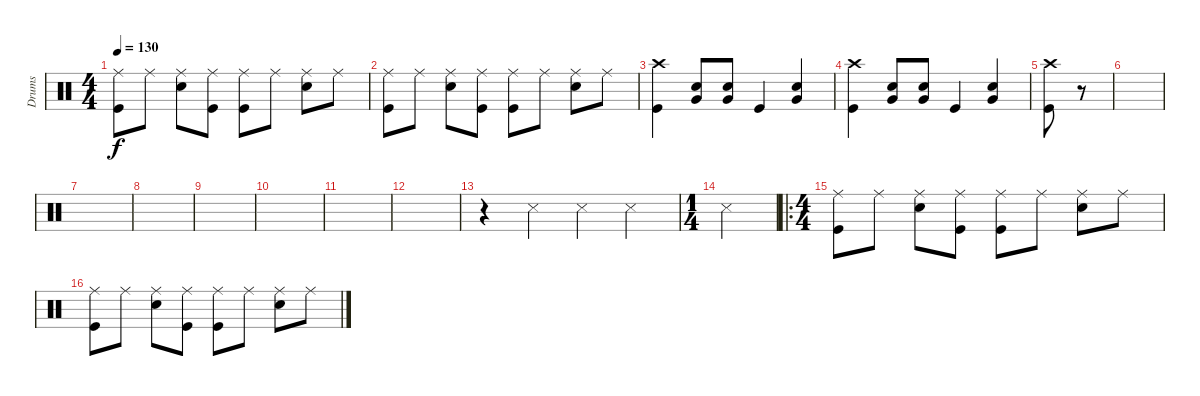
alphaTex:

\track ("Drums" "Drums") {instrument percussion}
\staff {score}
\articulation defaults
\ts (4 4)
\tempo 130
\clef neutral
\ks c
("Ride (middle)" "Kick (hit)").8{dy f} "Ride (middle)".8 ("Ride (middle)" "Snare (hit) 2").8 ("Ride (middle)" "Kick (hit)").8 ("Ride (middle)" "Kick (hit)").8 "Ride (middle)".8 ("Ride (middle)" "Snare (hit) 2").8 "Ride (middle)".8 |
("Ride (middle)" "Kick (hit)").8 "Ride (middle)".8 ("Ride (middle)" "Snare (hit) 2").8 ("Ride (middle)" "Kick (hit)").8 ("Ride (middle)" "Kick (hit)").8 "Ride (middle)".8 ("Ride (middle)" "Snare (hit) 2").8 "Ride (middle)".8 |
("Crash high (hit)" "Kick (hit)").4 ("Snare (hit) 2" "Very Low Tom (hit)").8 ("Snare (hit) 2" "Very Low Tom (hit)").8 "Kick (hit)".4 ("Snare (hit) 2" "Very Low Tom (hit)").4 |
("Crash high (hit)" "Kick (hit)").4 ("Snare (hit) 2" "Very Low Tom (hit)").8 ("Snare (hit) 2" "Very Low Tom (hit)").8 "Kick (hit)".4 ("Snare (hit) 2" "Very Low Tom (hit)").4 |
("Crash high (hit)" "Kick (hit)").8 r.8 |
|
|
|
|
|
|
|
r.4 "Snare (side stick) 3".4 "Snare (side stick) 3".4 "Snare (side stick) 3".4 |
\ts (1 4)
"Snare (side stick) 3".4 |
\ro
\ts (4 4)
("Ride (middle)" "Kick (hit)").8 "Ride (middle)".8 ("Ride (middle)" "Snare (hit) 2").8 ("Ride (middle)" "Kick (hit)").8 ("Ride (middle)" "Kick (hit)").8 "Ride (middle)".8 ("Ride (middle)" "Snare (hit) 2").8 "Ride (middle)".8 |
("Ride (middle)" "Kick (hit)").8 "Ride (middle)".8 ("Ride (middle)" "Snare (hit) 2").8 ("Ride (middle)" "Kick (hit)").8 ("Ride (middle)" "Kick (hit)").8 "Ride (middle)".8 ("Ride (middle)" "Snare (hit) 2").8 "Ride (middle)".8
